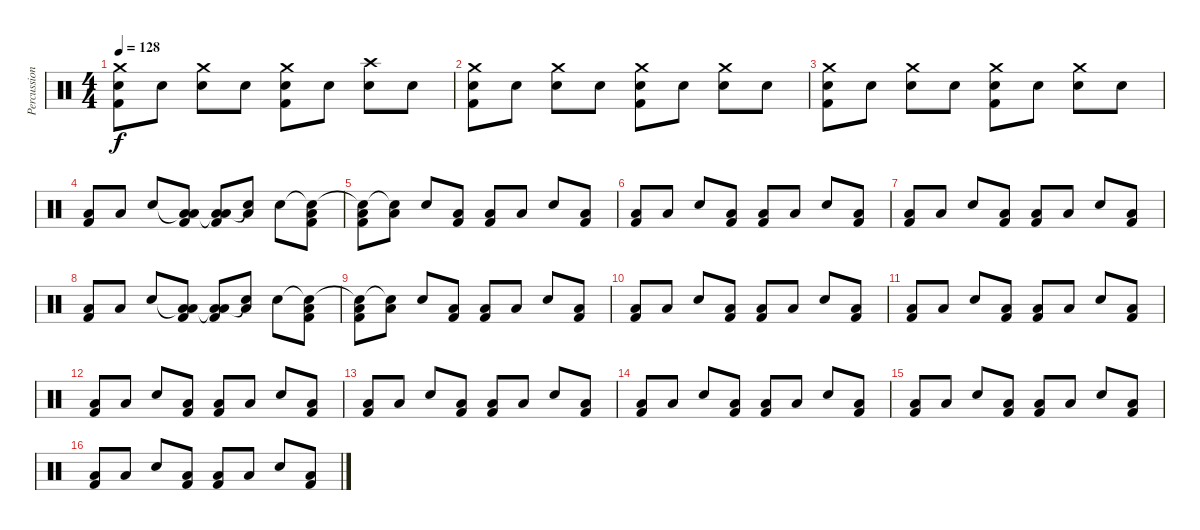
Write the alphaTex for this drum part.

\track ("Percussion" "Percussion") {instrument percussion}
\staff {score}
\articulation defaults
\ts (4 4)
\tempo 128
\clef neutral
\ks c
("Crash medium (hit)" "Snare (hit) 2" "Kick (hit) 2").8{dy f} "Snare (hit) 2".8 ("Crash medium (hit)" "Snare (hit) 2").8 "Snare (hit) 2".8 ("Crash medium (hit)" "Snare (hit) 2" "Kick (hit) 2").8 "Snare (hit) 2".8 ("Crash high (hit)" "Snare (hit) 2").8 "Snare (hit) 2".8 |
("Crash medium (hit)" "Snare (hit) 2" "Kick (hit) 2").8 "Snare (hit) 2".8 ("Crash medium (hit)" "Snare (hit) 2").8 "Snare (hit) 2".8 ("Crash medium (hit)" "Snare (hit) 2" "Kick (hit) 2").8 "Snare (hit) 2".8 ("Crash medium (hit)" "Snare (hit) 2").8 "Snare (hit) 2".8 |
("Crash medium (hit)" "Snare (hit) 2" "Kick (hit) 2").8 "Snare (hit) 2".8 ("Crash medium (hit)" "Snare (hit) 2").8 "Snare (hit) 2".8 ("Crash medium (hit)" "Snare (hit) 2" "Kick (hit) 2").8 "Snare (hit) 2".8 ("Crash medium (hit)" "Snare (hit) 2").8 "Snare (hit) 2".8 |
("Low Floor Tom (hit)" "Kick (hit) 2").8 "Low Floor Tom (hit)".8 "Snare (hit) 2".8 ("Low Tom (hit)"{t} "Low Floor Tom (hit)" "Kick (hit) 2").8 ("Low Tom (hit)"{t} "Low Floor Tom (hit)" "Kick (hit) 2").8 ("Snare (hit)"{t} "Low Floor Tom (hit)").8 "Snare (hit) 2".8 ("Snare (hit)"{t} "Low Floor Tom (hit)" "Kick (hit) 2").8 |
("Snare (hit)"{t} "Low Floor Tom (hit)" "Kick (hit) 2").8 ("Snare (hit)"{t} "Low Floor Tom (hit)").8 "Snare (hit) 2".8 ("Low Floor Tom (hit)" "Kick (hit) 2").8 ("Low Floor Tom (hit)" "Kick (hit) 2").8 "Low Floor Tom (hit)".8 "Snare (hit) 2".8 ("Low Floor Tom (hit)" "Kick (hit) 2").8 |
("Low Floor Tom (hit)" "Kick (hit) 2").8 "Low Floor Tom (hit)".8 "Snare (hit) 2".8 ("Low Floor Tom (hit)" "Kick (hit) 2").8 ("Low Floor Tom (hit)" "Kick (hit) 2").8 "Low Floor Tom (hit)".8 "Snare (hit) 2".8 ("Low Floor Tom (hit)" "Kick (hit) 2").8 |
("Low Floor Tom (hit)" "Kick (hit) 2").8 "Low Floor Tom (hit)".8 "Snare (hit) 2".8 ("Low Floor Tom (hit)" "Kick (hit) 2").8 ("Low Floor Tom (hit)" "Kick (hit) 2").8 "Low Floor Tom (hit)".8 "Snare (hit) 2".8 ("Low Floor Tom (hit)" "Kick (hit) 2").8 |
("Low Floor Tom (hit)" "Kick (hit) 2").8 "Low Floor Tom (hit)".8 "Snare (hit) 2".8 ("Low Tom (hit)"{t} "Low Floor Tom (hit)" "Kick (hit) 2").8 ("Low Tom (hit)"{t} "Low Floor Tom (hit)" "Kick (hit) 2").8 ("Snare (hit)"{t} "Low Floor Tom (hit)").8 "Snare (hit) 2".8 ("Snare (hit)"{t} "Low Floor Tom (hit)" "Kick (hit) 2").8 |
("Snare (hit)"{t} "Low Floor Tom (hit)" "Kick (hit) 2").8 ("Snare (hit)"{t} "Low Floor Tom (hit)").8 "Snare (hit) 2".8 ("Low Floor Tom (hit)" "Kick (hit) 2").8 ("Low Floor Tom (hit)" "Kick (hit) 2").8 "Low Floor Tom (hit)".8 "Snare (hit) 2".8 ("Low Floor Tom (hit)" "Kick (hit) 2").8 |
("Low Floor Tom (hit)" "Kick (hit) 2").8 "Low Floor Tom (hit)".8 "Snare (hit) 2".8 ("Low Floor Tom (hit)" "Kick (hit) 2").8 ("Low Floor Tom (hit)" "Kick (hit) 2").8 "Low Floor Tom (hit)".8 "Snare (hit) 2".8 ("Low Floor Tom (hit)" "Kick (hit) 2").8 |
("Low Floor Tom (hit)" "Kick (hit) 2").8 "Low Floor Tom (hit)".8 "Snare (hit) 2".8 ("Low Floor Tom (hit)" "Kick (hit) 2").8 ("Low Floor Tom (hit)" "Kick (hit) 2").8 "Low Floor Tom (hit)".8 "Snare (hit) 2".8 ("Low Floor Tom (hit)" "Kick (hit) 2").8 |
("Low Floor Tom (hit)" "Kick (hit) 2").8 "Low Floor Tom (hit)".8 "Snare (hit) 2".8 ("Low Floor Tom (hit)" "Kick (hit) 2").8 ("Low Floor Tom (hit)" "Kick (hit) 2").8 "Low Floor Tom (hit)".8 "Snare (hit) 2".8 ("Low Floor Tom (hit)" "Kick (hit) 2").8 |
("Low Floor Tom (hit)" "Kick (hit) 2").8 "Low Floor Tom (hit)".8 "Snare (hit) 2".8 ("Low Floor Tom (hit)" "Kick (hit) 2").8 ("Low Floor Tom (hit)" "Kick (hit) 2").8 "Low Floor Tom (hit)".8 "Snare (hit) 2".8 ("Low Floor Tom (hit)" "Kick (hit) 2").8 |
("Low Floor Tom (hit)" "Kick (hit) 2").8 "Low Floor Tom (hit)".8 "Snare (hit) 2".8 ("Low Floor Tom (hit)" "Kick (hit) 2").8 ("Low Floor Tom (hit)" "Kick (hit) 2").8 "Low Floor Tom (hit)".8 "Snare (hit) 2".8 ("Low Floor Tom (hit)" "Kick (hit) 2").8 |
("Low Floor Tom (hit)" "Kick (hit) 2").8 "Low Floor Tom (hit)".8 "Snare (hit) 2".8 ("Low Floor Tom (hit)" "Kick (hit) 2").8 ("Low Floor Tom (hit)" "Kick (hit) 2").8 "Low Floor Tom (hit)".8 "Snare (hit) 2".8 ("Low Floor Tom (hit)" "Kick (hit) 2").8 |
("Low Floor Tom (hit)" "Kick (hit) 2").8 "Low Floor Tom (hit)".8 "Snare (hit) 2".8 ("Low Floor Tom (hit)" "Kick (hit) 2").8 ("Low Floor Tom (hit)" "Kick (hit) 2").8 "Low Floor Tom (hit)".8 "Snare (hit) 2".8 ("Low Floor Tom (hit)" "Kick (hit) 2").8
